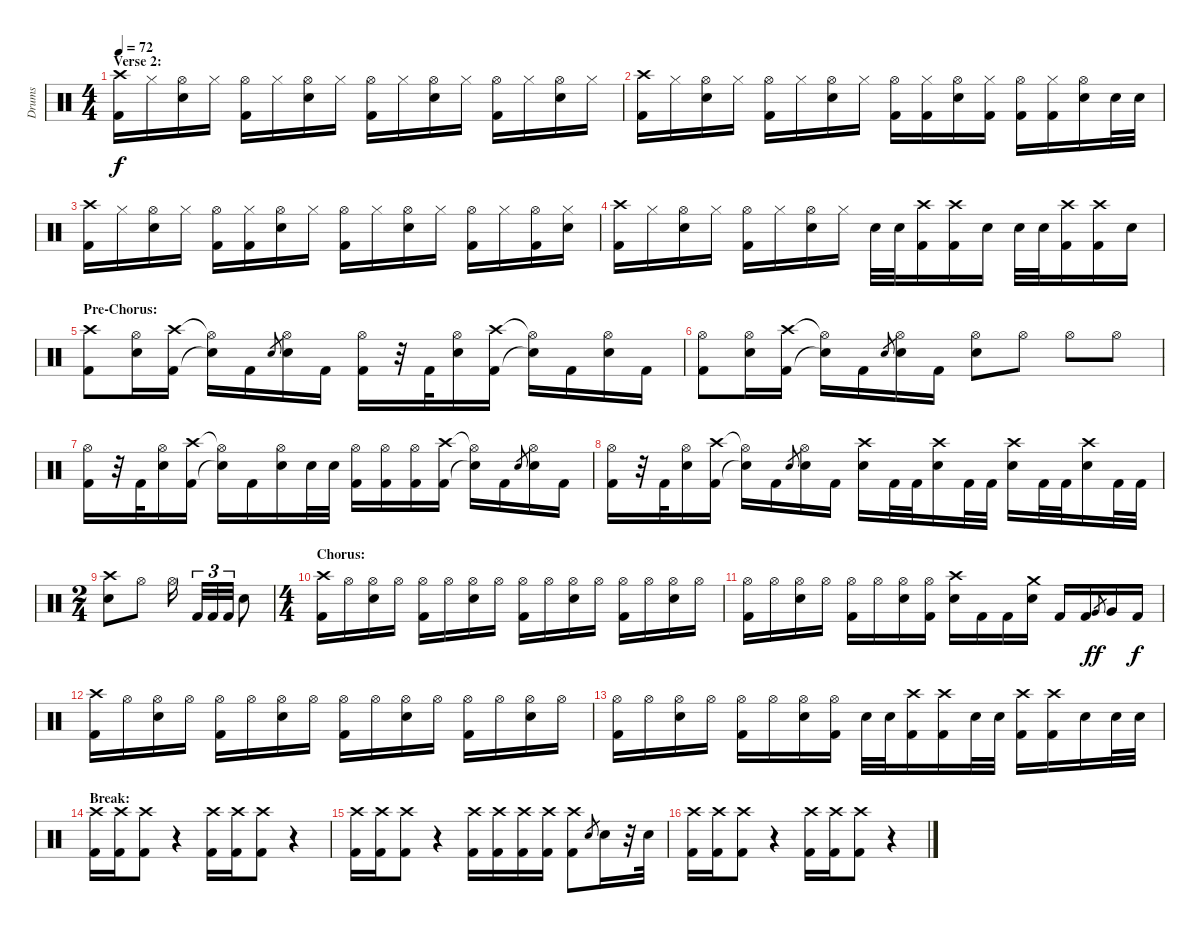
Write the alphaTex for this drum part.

\track ("Drums" "Drums") {instrument percussion}
\staff {score}
\articulation defaults
\ts (4 4)
\section ("" "Verse 2:")
\tempo 72
\clef neutral
\ks c
("Crash high (hit)" "Kick (hit) 2").16{dy f} "Hi-Hat (closed)".16 ("Hi-Hat (open)" "Snare (hit) 2").16 "Hi-Hat (closed)".16 ("Hi-Hat (open)" "Kick (hit) 2").16 "Hi-Hat (closed)".16 ("Hi-Hat (open)" "Snare (hit) 2").16 "Hi-Hat (closed)".16 ("Hi-Hat (open)" "Kick (hit) 2").16 "Hi-Hat (closed)".16 ("Hi-Hat (open)" "Snare (hit) 2").16 "Hi-Hat (closed)".16 ("Hi-Hat (open)" "Kick (hit) 2").16 "Hi-Hat (closed)".16 ("Hi-Hat (open)" "Snare (hit) 2").16 "Hi-Hat (closed)".16 |
("Crash high (hit)" "Kick (hit) 2").16 "Hi-Hat (closed)".16 ("Hi-Hat (open)" "Snare (hit) 2").16 "Hi-Hat (closed)".16 ("Hi-Hat (open)" "Kick (hit) 2").16 "Hi-Hat (closed)".16 ("Hi-Hat (open)" "Snare (hit) 2").16 "Hi-Hat (closed)".16 ("Hi-Hat (open)" "Kick (hit) 2").16 ("Hi-Hat (closed)" "Kick (hit) 2").16 ("Hi-Hat (open)" "Snare (hit) 2").16 ("Hi-Hat (closed)" "Kick (hit) 2").16 ("Hi-Hat (open)" "Kick (hit) 2").16 ("Hi-Hat (closed)" "Kick (hit) 2").16 ("Hi-Hat (open)" "Snare (hit) 2").16 "Snare (hit) 2".32 "Snare (hit) 2".32 |
("Crash high (hit)" "Kick (hit) 2").16 "Hi-Hat (closed)".16 ("Hi-Hat (open)" "Snare (hit) 2").16 "Hi-Hat (closed)".16 ("Hi-Hat (open)" "Kick (hit) 2").16 ("Hi-Hat (closed)" "Kick (hit) 2").16 ("Hi-Hat (open)" "Snare (hit) 2").16 "Hi-Hat (closed)".16 ("Hi-Hat (open)" "Kick (hit) 2").16 "Hi-Hat (closed)".16 ("Hi-Hat (open)" "Snare (hit) 2").16 "Hi-Hat (closed)".16 ("Hi-Hat (open)" "Kick (hit) 2").16 "Hi-Hat (closed)".16 ("Hi-Hat (open)" "Kick (hit) 2").16 ("Hi-Hat (closed)" "Snare (hit) 2").16 |
("Crash high (hit)" "Kick (hit) 2").16 "Hi-Hat (closed)".16 ("Hi-Hat (open)" "Snare (hit) 2").16 "Hi-Hat (closed)".16 ("Hi-Hat (open)" "Kick (hit) 2").16 "Hi-Hat (closed)".16 ("Hi-Hat (open)" "Snare (hit) 2").16 "Hi-Hat (closed)".16 "Snare (hit) 2".32 "Snare (hit) 2".32 ("Crash high (hit)" "Kick (hit) 2").16 ("Crash high (hit)" "Kick (hit) 2").16 "Snare (hit) 2".16 "Snare (hit) 2".32 "Snare (hit) 2".32 ("Crash high (hit)" "Kick (hit) 2").16 ("Crash high (hit)" "Kick (hit) 2").16 "Snare (hit) 2".16 |
\section ("" "Pre-Chorus:")
("Crash high (hit)" "Kick (hit) 2").8 ("Hi-Hat (open)" "Snare (hit) 2").16 ("Crash high (hit)" "Kick (hit) 2").16 ("Hi-Hat (open)"{t} "Snare (hit)"{t}).16 "Kick (hit) 2".16 "Snare (hit) 2".8{gr} ("Hi-Hat (open)" "Snare (hit) 2").16 "Kick (hit) 2".16 ("Hi-Hat (open)" "Kick (hit) 2").16 r.32 "Kick (hit) 2".32 ("Hi-Hat (open)" "Snare (hit) 2").16 ("Crash high (hit)" "Kick (hit) 2").16 ("Hi-Hat (open)"{t} "Snare (hit)"{t}).16 "Kick (hit) 2".16 ("Hi-Hat (open)" "Snare (hit) 2").16 "Kick (hit) 2".16 |
("Hi-Hat (open)" "Kick (hit) 2").8 ("Hi-Hat (open)" "Snare (hit) 2").16 ("Crash high (hit)" "Kick (hit) 2").16 ("Hi-Hat (open)"{t} "Snare (hit)"{t}).16 "Kick (hit) 2".16 "Snare (hit) 2".8{gr} ("Hi-Hat (open)" "Snare (hit) 2").16 "Kick (hit) 2".16 ("Hi-Hat (open)" "Snare (hit) 2").8 "Hi-Hat (open)".8 "Hi-Hat (open)".8 "Hi-Hat (open)".8 |
("Hi-Hat (open)" "Kick (hit) 2").16 r.32 "Kick (hit) 2".32 ("Hi-Hat (open)" "Snare (hit) 2").16 ("Crash high (hit)" "Kick (hit) 2").16 ("Hi-Hat (open)"{t} "Snare (hit)"{t}).16 "Kick (hit) 2".16 ("Hi-Hat (open)" "Snare (hit) 2").16 "Snare (hit) 2".32 "Snare (hit) 2".32 ("Hi-Hat (open)" "Kick (hit) 2").16 ("Hi-Hat (open)" "Kick (hit) 2").16 ("Hi-Hat (open)" "Kick (hit) 2").16 ("Crash high (hit)" "Kick (hit) 2").16 ("Hi-Hat (open)"{t} "Snare (hit)"{t}).16 "Kick (hit) 2".16 "Snare (hit) 2".8{gr} ("Hi-Hat (open)" "Snare (hit) 2").16 "Kick (hit) 2".16 |
("Hi-Hat (open)" "Kick (hit) 2").16 r.32 "Kick (hit) 2".32 ("Hi-Hat (open)" "Snare (hit) 2").16 ("Crash high (hit)" "Kick (hit) 2").16 ("Hi-Hat (open)"{t} "Snare (hit)"{t}).16 "Kick (hit) 2".16 "Snare (hit) 2".8{gr} ("Hi-Hat (open)" "Snare (hit) 2").16 "Kick (hit) 2".16 ("Crash high (hit)" "Snare (hit) 2").16 "Kick (hit) 2".32 "Kick (hit) 2".32 ("Crash high (hit)" "Snare (hit) 2").16 "Kick (hit) 2".32 "Kick (hit) 2".32 ("Crash high (hit)" "Snare (hit) 2").16 "Kick (hit) 2".32 "Kick (hit) 2".32 ("Crash high (hit)" "Snare (hit) 2").16 "Kick (hit) 2".32 "Kick (hit) 2".32 |
\ts (2 4)
("Crash high (hit)" "Snare (hit) 2").8 "Hi-Hat (open)".8 "Hi-Hat (open)".16 "Kick (hit) 2".32{tu (3 2)} "Kick (hit) 2".32{tu (3 2)} "Kick (hit) 2".32{tu (3 2)} "Snare (hit) 2".8 |
\ts (4 4)
\section ("" "Chorus:")
("Crash high (hit)" "Kick (hit) 2").16 "Hi-Hat (open)".16 ("Hi-Hat (open)" "Snare (hit) 2").16 "Hi-Hat (open)".16 ("Hi-Hat (open)" "Kick (hit) 2").16 "Hi-Hat (open)".16 ("Hi-Hat (open)" "Snare (hit) 2").16 "Hi-Hat (open)".16 ("Hi-Hat (open)" "Kick (hit) 2").16 "Hi-Hat (open)".16 ("Hi-Hat (open)" "Snare (hit) 2").16 "Hi-Hat (open)".16 ("Hi-Hat (open)" "Kick (hit) 2").16 "Hi-Hat (open)".16 ("Hi-Hat (open)" "Snare (hit) 2").16 "Hi-Hat (open)".16 |
("Hi-Hat (open)" "Kick (hit) 2").16 "Hi-Hat (open)".16 ("Hi-Hat (open)" "Snare (hit) 2").16 "Hi-Hat (open)".16 ("Hi-Hat (open)" "Kick (hit) 2").16 "Hi-Hat (open)".16 ("Hi-Hat (open)" "Snare (hit) 2").16 ("Hi-Hat (open)" "Kick (hit) 2").16 ("Crash high (hit)" "Snare (hit) 2").16 "Kick (hit) 2".16 "Kick (hit) 2".16 ("Crash medium (hit)" "Snare (hit) 2").16 "Kick (hit) 2".16 "Kick (hit) 2".16 "Very Low Tom (hit)".8{gr dy ff} "Very Low Tom (hit)".16 "Kick (hit) 2".16{dy f} |
("Crash high (hit)" "Kick (hit) 2").16 "Hi-Hat (open)".16 ("Hi-Hat (open)" "Snare (hit) 2").16 "Hi-Hat (open)".16 ("Hi-Hat (open)" "Kick (hit) 2").16 "Hi-Hat (open)".16 ("Hi-Hat (open)" "Snare (hit) 2").16 "Hi-Hat (open)".16 ("Hi-Hat (open)" "Kick (hit) 2").16 "Hi-Hat (open)".16 ("Hi-Hat (open)" "Snare (hit) 2").16 "Hi-Hat (open)".16 ("Hi-Hat (open)" "Kick (hit) 2").16 "Hi-Hat (open)".16 ("Hi-Hat (open)" "Snare (hit) 2").16 "Hi-Hat (open)".16 |
("Hi-Hat (open)" "Kick (hit) 2").16 "Hi-Hat (open)".16 ("Hi-Hat (open)" "Snare (hit) 2").16 "Hi-Hat (open)".16 ("Hi-Hat (open)" "Kick (hit) 2").16 "Hi-Hat (open)".16 ("Hi-Hat (open)" "Snare (hit) 2").16 ("Hi-Hat (open)" "Kick (hit) 2").16 "Snare (hit) 2".32 "Snare (hit) 2".32 ("Crash high (hit)" "Kick (hit) 2").16 ("Crash high (hit)" "Kick (hit) 2").16 "Snare (hit) 2".32 "Snare (hit) 2".32 ("Crash high (hit)" "Kick (hit) 2").16 ("Crash high (hit)" "Kick (hit) 2").16 "Snare (hit) 2".16 "Snare (hit) 2".32 "Snare (hit) 2".32 |
\section ("" "Break:")
("Crash high (hit)" "Kick (hit) 2").16 ("Crash high (hit)" "Kick (hit) 2").16 ("Crash high (hit)" "Kick (hit) 2").8 r.4 ("Crash high (hit)" "Kick (hit) 2").16 ("Crash high (hit)" "Kick (hit) 2").16 ("Crash high (hit)" "Kick (hit) 2").8 r.4 |
("Crash high (hit)" "Kick (hit) 2").16 ("Crash high (hit)" "Kick (hit) 2").16 ("Crash high (hit)" "Kick (hit) 2").8 r.4 ("Crash high (hit)" "Kick (hit) 2").16 ("Crash high (hit)" "Kick (hit) 2").16 ("Crash high (hit)" "Kick (hit) 2").16 ("Crash high (hit)" "Kick (hit) 2").16 ("Crash high (hit)" "Kick (hit) 2").8 "Snare (hit) 2".8{gr} "Snare (hit) 2".16 r.32 "Snare (hit) 2".32 |
("Crash high (hit)" "Kick (hit) 2").16 ("Crash high (hit)" "Kick (hit) 2").16 ("Crash high (hit)" "Kick (hit) 2").8 r.4 ("Crash high (hit)" "Kick (hit) 2").16 ("Crash high (hit)" "Kick (hit) 2").16 ("Crash high (hit)" "Kick (hit) 2").8 r.4
